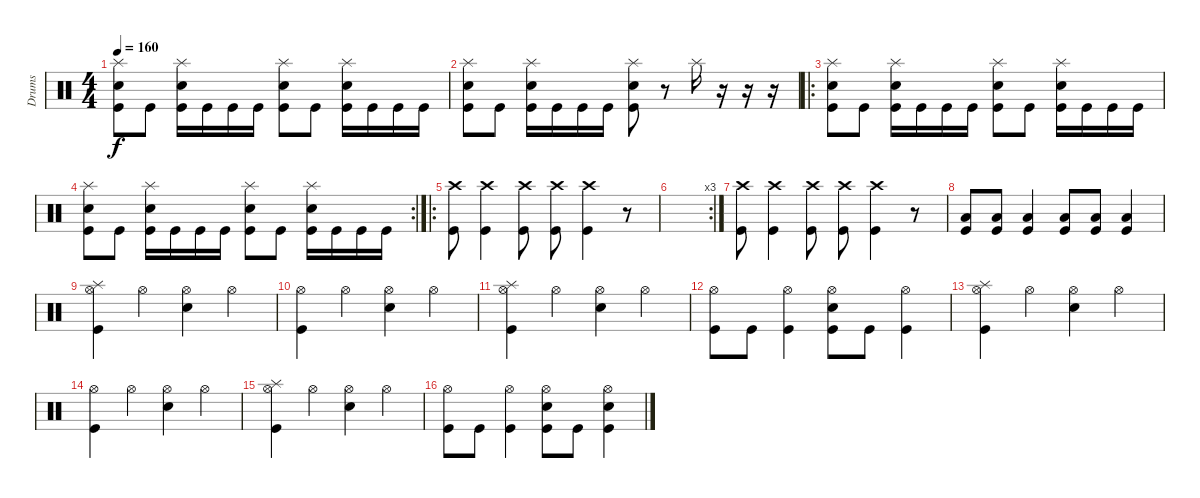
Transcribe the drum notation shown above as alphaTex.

\track ("Drums" "Drums") {instrument percussion}
\staff {score}
\articulation defaults
\ts (4 4)
\tempo 160
\clef neutral
\ks c
("Splash (hit)" "Snare (hit) 2" "Kick (hit)").8{dy f} "Kick (hit)".8 ("Splash (hit)" "Snare (hit) 2" "Kick (hit)").16 "Kick (hit)".16 "Kick (hit)".16 "Kick (hit)".16 ("Splash (hit)" "Snare (hit) 2" "Kick (hit)").8 "Kick (hit)".8 ("Splash (hit)" "Snare (hit) 2" "Kick (hit)").16 "Kick (hit)".16 "Kick (hit)".16 "Kick (hit)".16 |
("Splash (hit)" "Snare (hit) 2" "Kick (hit)").8 "Kick (hit)".8 ("Splash (hit)" "Snare (hit) 2" "Kick (hit)").16 "Kick (hit)".16 "Kick (hit)".16 "Kick (hit)".16 ("Splash (hit)" "Snare (hit) 2" "Kick (hit)").8 r.8 "Splash (hit)".16 r.16 r.16 r.16 |
\ro
("Splash (hit)" "Snare (hit) 2" "Kick (hit)").8 "Kick (hit)".8 ("Splash (hit)" "Snare (hit) 2" "Kick (hit)").16 "Kick (hit)".16 "Kick (hit)".16 "Kick (hit)".16 ("Splash (hit)" "Snare (hit) 2" "Kick (hit)").8 "Kick (hit)".8 ("Splash (hit)" "Snare (hit) 2" "Kick (hit)").16 "Kick (hit)".16 "Kick (hit)".16 "Kick (hit)".16 |
\rc 2
("Splash (hit)" "Snare (hit) 2" "Kick (hit)").8 "Kick (hit)".8 ("Splash (hit)" "Snare (hit) 2" "Kick (hit)").16 "Kick (hit)".16 "Kick (hit)".16 "Kick (hit)".16 ("Splash (hit)" "Snare (hit) 2" "Kick (hit)").8 "Kick (hit)".8 ("Splash (hit)" "Snare (hit) 2" "Kick (hit)").16 "Kick (hit)".16 "Kick (hit)".16 "Kick (hit)".16 |
\ro
("Crash high (hit)" "Kick (hit)").8 ("Crash high (hit)" "Kick (hit)").4 ("Crash high (hit)" "Kick (hit)").8 ("Crash high (hit)" "Kick (hit)").8 ("Crash high (hit)" "Kick (hit)").4 r.8 |
\rc 3
|
("Crash high (hit)" "Kick (hit)").8 ("Crash high (hit)" "Kick (hit)").4 ("Crash high (hit)" "Kick (hit)").8 ("Crash high (hit)" "Kick (hit)").8 ("Crash high (hit)" "Kick (hit)").4 r.8 |
("Low Floor Tom (hit)" "Kick (hit)").8 ("Low Floor Tom (hit)" "Kick (hit)").8 ("Low Floor Tom (hit)" "Kick (hit)").4 ("Low Floor Tom (hit)" "Kick (hit)").8 ("Low Floor Tom (hit)" "Kick (hit)").8 ("Low Floor Tom (hit)" "Kick (hit)").4 |
("Splash (hit)" "Hi-Hat (open)" "Kick (hit)").4 "Hi-Hat (open)".4 ("Hi-Hat (open)" "Snare (hit) 2").4 "Hi-Hat (open)".4 |
("Hi-Hat (open)" "Kick (hit)").4 "Hi-Hat (open)".4 ("Hi-Hat (open)" "Snare (hit) 2").4 "Hi-Hat (open)".4 |
("Splash (hit)" "Hi-Hat (open)" "Kick (hit)").4 "Hi-Hat (open)".4 ("Hi-Hat (open)" "Snare (hit) 2").4 "Hi-Hat (open)".4 |
("Hi-Hat (open)" "Kick (hit)").8 "Kick (hit)".8 ("Hi-Hat (open)" "Kick (hit)").4 ("Hi-Hat (open)" "Snare (hit) 2" "Kick (hit)").8 "Kick (hit)".8 ("Hi-Hat (open)" "Kick (hit)").4 |
("Splash (hit)" "Hi-Hat (open)" "Kick (hit)").4 "Hi-Hat (open)".4 ("Hi-Hat (open)" "Snare (hit) 2").4 "Hi-Hat (open)".4 |
("Hi-Hat (open)" "Kick (hit)").4 "Hi-Hat (open)".4 ("Hi-Hat (open)" "Snare (hit) 2").4 "Hi-Hat (open)".4 |
("Splash (hit)" "Hi-Hat (open)" "Kick (hit)").4 "Hi-Hat (open)".4 ("Hi-Hat (open)" "Snare (hit) 2").4 "Hi-Hat (open)".4 |
("Hi-Hat (open)" "Kick (hit)").8 "Kick (hit)".8 ("Hi-Hat (open)" "Kick (hit)").4 ("Hi-Hat (open)" "Snare (hit) 2" "Kick (hit)").8 "Kick (hit)".8 ("Hi-Hat (open)" "Snare (hit) 2" "Kick (hit)").4
